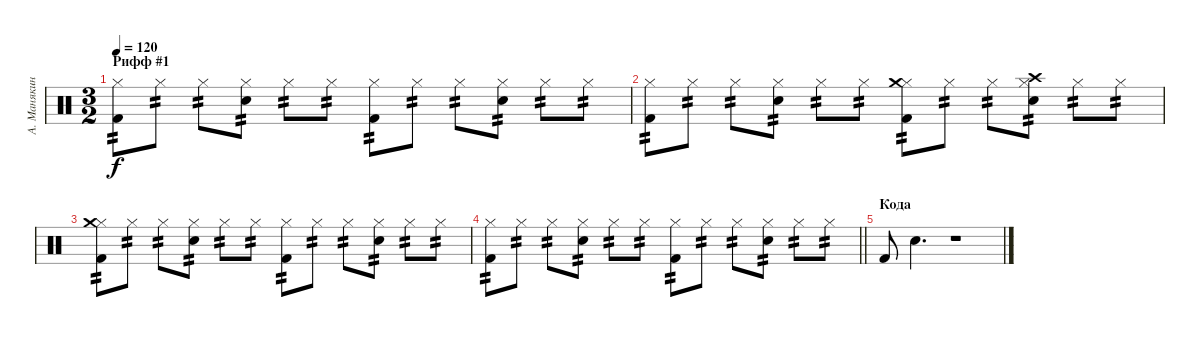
\track ("А. Манякин" "А. Манякин") {instrument percussion}
\staff {score}
\articulation defaults
\ts (3 2)
\section ("" "Рифф #1")
\tempo 120
\clef neutral
\ks c
("Kick (hit) 2" "Hi-Hat (closed)").8{tp 2 dy f} "Hi-Hat (closed)".8{tp 2} "Hi-Hat (closed)".8{tp 2} ("Electric Snare (hit)" "Hi-Hat (closed)").8{tp 2} "Hi-Hat (closed)".8{tp 2} "Hi-Hat (closed)".8{tp 2} ("Kick (hit) 2" "Hi-Hat (closed)").8{tp 2} "Hi-Hat (closed)".8{tp 2} "Hi-Hat (closed)".8{tp 2} ("Electric Snare (hit)" "Hi-Hat (closed)").8{tp 2} "Hi-Hat (closed)".8{tp 2} "Hi-Hat (closed)".8{tp 2} |
("Kick (hit) 2" "Hi-Hat (closed)").8{tp 2} "Hi-Hat (closed)".8{tp 2} "Hi-Hat (closed)".8{tp 2} ("Electric Snare (hit)" "Hi-Hat (closed)").8{tp 2} "Hi-Hat (closed)".8{tp 2} "Hi-Hat (closed)".8{tp 2} ("Kick (hit) 2" "Hi-Hat (closed)" "Crash medium (hit)").8{tp 2} "Hi-Hat (closed)".8{tp 2} "Hi-Hat (closed)".8{tp 2} ("Electric Snare (hit)" "Hi-Hat (closed)" "Crash high (hit)").8{tp 2} "Hi-Hat (closed)".8{tp 2} "Hi-Hat (closed)".8{tp 2} |
("Kick (hit) 2" "Hi-Hat (closed)" "Crash medium (hit)").8{tp 2} "Hi-Hat (closed)".8{tp 2} "Hi-Hat (closed)".8{tp 2} ("Electric Snare (hit)" "Hi-Hat (closed)").8{tp 2} "Hi-Hat (closed)".8{tp 2} "Hi-Hat (closed)".8{tp 2} ("Kick (hit) 2" "Hi-Hat (closed)").8{tp 2} "Hi-Hat (closed)".8{tp 2} "Hi-Hat (closed)".8{tp 2} ("Electric Snare (hit)" "Hi-Hat (closed)").8{tp 2} "Hi-Hat (closed)".8{tp 2} "Hi-Hat (closed)".8{tp 2} |
\barLineRight lightlight
("Kick (hit) 2" "Hi-Hat (closed)").8{tp 2} "Hi-Hat (closed)".8{tp 2} "Hi-Hat (closed)".8{tp 2} ("Electric Snare (hit)" "Hi-Hat (closed)").8{tp 2} "Hi-Hat (closed)".8{tp 2} "Hi-Hat (closed)".8{tp 2} ("Kick (hit) 2" "Hi-Hat (closed)").8{tp 2} "Hi-Hat (closed)".8{tp 2} "Hi-Hat (closed)".8{tp 2} ("Electric Snare (hit)" "Hi-Hat (closed)").8{tp 2} "Hi-Hat (closed)".8{tp 2} "Hi-Hat (closed)".8{tp 2} |
\section ("" "Кода")
"Kick (hit) 2".8 "Electric Snare (hit)".4{d} r.1
